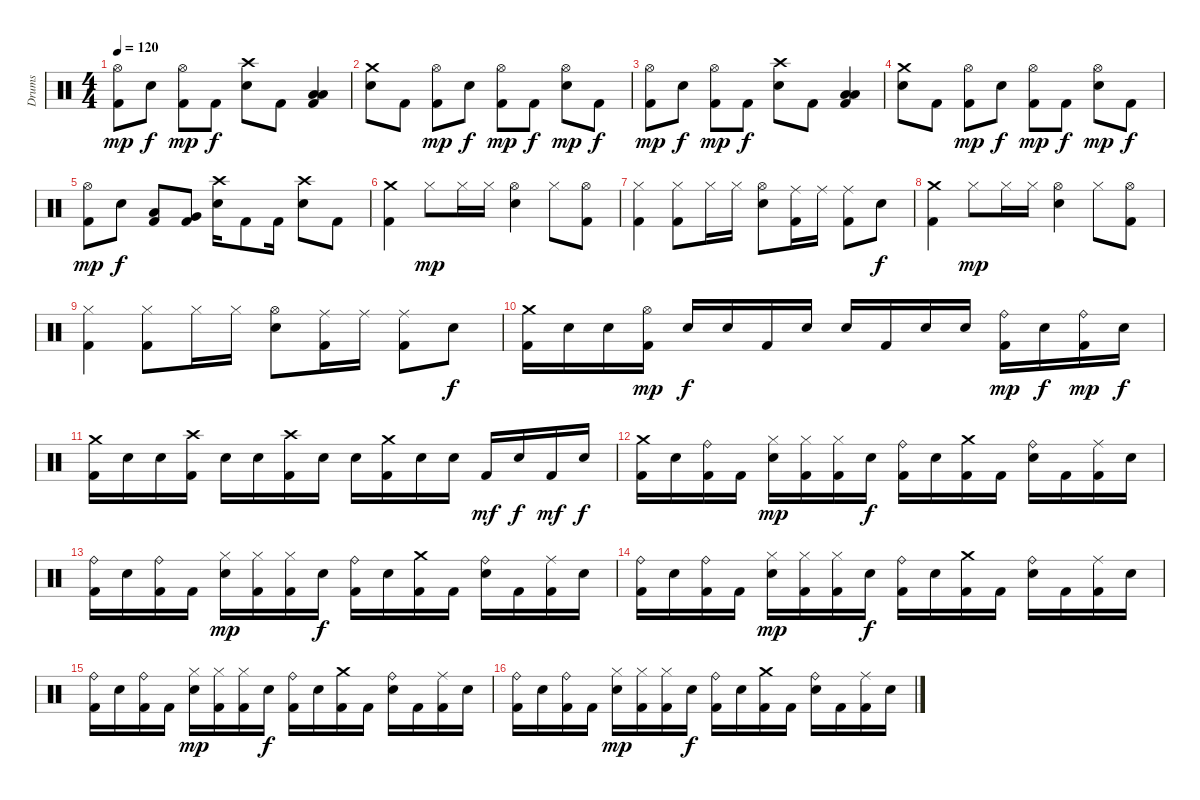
\track ("Drums" "Drums") {instrument percussion}
\staff {score}
\articulation defaults
\ts (4 4)
\tempo 120
\clef neutral
\ks c
("Hi-Hat (open)" "Kick (hit) 2").8{dy mp} "Snare (hit) 2".8{dy f} ("Hi-Hat (open)" "Kick (hit) 2").8{dy mp} "Kick (hit) 2".8{dy f} ("Crash high (hit)" "Snare (hit) 2").8 "Kick (hit) 2".8 ("Low Floor Tom (hit)" "Low Floor Tom (hit)" "Kick (hit) 2").4 |
("Crash medium (hit)" "Snare (hit) 2").8 "Kick (hit) 2".8 ("Hi-Hat (open)" "Kick (hit) 2").8{dy mp} "Snare (hit) 2".8{dy f} ("Hi-Hat (open)" "Kick (hit) 2").8{dy mp} "Kick (hit) 2".8{dy f} ("Hi-Hat (open)" "Snare (hit) 2").8{dy mp} "Kick (hit) 2".8{dy f} |
("Hi-Hat (open)" "Kick (hit) 2").8{dy mp} "Snare (hit) 2".8{dy f} ("Hi-Hat (open)" "Kick (hit) 2").8{dy mp} "Kick (hit) 2".8{dy f} ("Crash high (hit)" "Snare (hit) 2").8 "Kick (hit) 2".8 ("Low Floor Tom (hit)" "Low Floor Tom (hit)" "Kick (hit) 2").4 |
("Crash medium (hit)" "Snare (hit) 2").8 "Kick (hit) 2".8 ("Hi-Hat (open)" "Kick (hit) 2").8{dy mp} "Snare (hit) 2".8{dy f} ("Hi-Hat (open)" "Kick (hit) 2").8{dy mp} "Kick (hit) 2".8{dy f} ("Hi-Hat (open)" "Snare (hit) 2").8{dy mp} "Kick (hit) 2".8{dy f} |
("Hi-Hat (open)" "Kick (hit) 2").8{dy mp} "Snare (hit) 2".8{dy f} ("Low Tom (hit)" "Kick (hit) 2").8 ("Very Low Tom (hit)" "Kick (hit) 2").8 ("Crash high (hit)" "Snare (hit) 2").16 "Kick (hit) 2".8 "Kick (hit) 2".16 ("Crash high (hit)" "Snare (hit) 2").8 "Kick (hit) 2".8 |
("Crash medium (hit)" "Kick (hit) 2").4 "Hi-Hat (closed)".8{dy mp} "Hi-Hat (closed)".16 "Hi-Hat (closed)".16 ("Hi-Hat (open)" "Snare (hit) 2").4 "Hi-Hat (closed)".8 ("Hi-Hat (open)" "Kick (hit) 2").8 |
("Hi-Hat (closed)" "Kick (hit) 2").4 ("Hi-Hat (closed)" "Kick (hit) 2").8 "Hi-Hat (closed)".16 "Hi-Hat (closed)".16 ("Hi-Hat (open)" "Snare (hit) 2").8 ("Ride (middle)" "Kick (hit) 2").16 "Ride (middle)".16 ("Ride (middle)" "Kick (hit) 2").8 "Snare (hit) 2".8{dy f} |
("Crash medium (hit)" "Kick (hit) 2").4 "Hi-Hat (closed)".8{dy mp} "Hi-Hat (closed)".16 "Hi-Hat (closed)".16 ("Hi-Hat (open)" "Snare (hit) 2").4 "Hi-Hat (closed)".8 ("Hi-Hat (open)" "Kick (hit) 2").8 |
("Hi-Hat (closed)" "Kick (hit) 2").4 ("Hi-Hat (closed)" "Kick (hit) 2").8 "Hi-Hat (closed)".16 "Hi-Hat (closed)".16 ("Hi-Hat (open)" "Snare (hit) 2").8 ("Ride (middle)" "Kick (hit) 2").16 "Ride (middle)".16 ("Ride (middle)" "Kick (hit) 2").8 "Snare (hit) 2".8{dy f} |
("Crash medium (hit)" "Kick (hit) 2").16 "Snare (hit) 2".16 "Snare (hit) 2".16 ("Hi-Hat (open)" "Kick (hit) 2").16{dy mp} "Snare (hit) 2".16{dy f} "Snare (hit) 2".16 "Kick (hit) 2".16 "Snare (hit) 2".16 "Snare (hit) 2".16 "Kick (hit) 2".16 "Snare (hit) 2".16 "Snare (hit) 2".16 ("Ride (bell)" "Kick (hit) 2").16{dy mp} "Snare (hit) 2".16{dy f} ("Ride (bell)" "Kick (hit) 2").16{dy mp} "Snare (hit) 2".16{dy f} |
("Crash medium (hit)" "Kick (hit) 2").16 "Snare (hit) 2".16 "Snare (hit) 2".16 ("Crash high (hit)" "Kick (hit) 2").16 "Snare (hit) 2".16 "Snare (hit) 2".16 ("Crash high (hit)" "Kick (hit) 2").16 "Snare (hit) 2".16 "Snare (hit) 2".16 ("Crash medium (hit)" "Kick (hit) 2").16 "Snare (hit) 2".16 "Snare (hit) 2".16 "Kick (hit) 2".16{dy mf} "Snare (hit) 2".16{dy f} "Kick (hit) 2".16{dy mf} "Snare (hit) 2".16{dy f} |
("Crash medium (hit)" "Kick (hit) 2").16 "Snare (hit) 2".16 ("Ride (bell)" "Kick (hit) 2").16 "Kick (hit) 2".16 ("Hi-Hat (closed)" "Snare (hit) 2").16{dy mp} ("Hi-Hat (closed)" "Kick (hit) 2").16 ("Hi-Hat (closed)" "Kick (hit) 2").16 "Snare (hit) 2".16{dy f} ("Ride (bell)" "Kick (hit) 2").16 "Snare (hit) 2".16 ("Crash medium (hit)" "Kick (hit) 2").16 "Kick (hit) 2".16 ("Ride (bell)" "Snare (hit) 2").16 "Kick (hit) 2".16 ("Ride (middle)" "Kick (hit) 2").16 "Snare (hit) 2".16 |
("Ride (bell)" "Kick (hit) 2").16 "Snare (hit) 2".16 ("Ride (bell)" "Kick (hit) 2").16 "Kick (hit) 2".16 ("Hi-Hat (closed)" "Snare (hit) 2").16{dy mp} ("Hi-Hat (closed)" "Kick (hit) 2").16 ("Hi-Hat (closed)" "Kick (hit) 2").16 "Snare (hit) 2".16{dy f} ("Ride (bell)" "Kick (hit) 2").16 "Snare (hit) 2".16 ("Crash medium (hit)" "Kick (hit) 2").16 "Kick (hit) 2".16 ("Ride (bell)" "Snare (hit) 2").16 "Kick (hit) 2".16 ("Ride (middle)" "Kick (hit) 2").16 "Snare (hit) 2".16 |
("Ride (bell)" "Kick (hit) 2").16 "Snare (hit) 2".16 ("Ride (bell)" "Kick (hit) 2").16 "Kick (hit) 2".16 ("Hi-Hat (closed)" "Snare (hit) 2").16{dy mp} ("Hi-Hat (closed)" "Kick (hit) 2").16 ("Hi-Hat (closed)" "Kick (hit) 2").16 "Snare (hit) 2".16{dy f} ("Ride (bell)" "Kick (hit) 2").16 "Snare (hit) 2".16 ("Crash medium (hit)" "Kick (hit) 2").16 "Kick (hit) 2".16 ("Ride (bell)" "Snare (hit) 2").16 "Kick (hit) 2".16 ("Ride (middle)" "Kick (hit) 2").16 "Snare (hit) 2".16 |
("Ride (bell)" "Kick (hit) 2").16 "Snare (hit) 2".16 ("Ride (bell)" "Kick (hit) 2").16 "Kick (hit) 2".16 ("Hi-Hat (closed)" "Snare (hit) 2").16{dy mp} ("Hi-Hat (closed)" "Kick (hit) 2").16 ("Hi-Hat (closed)" "Kick (hit) 2").16 "Snare (hit) 2".16{dy f} ("Ride (bell)" "Kick (hit) 2").16 "Snare (hit) 2".16 ("Crash medium (hit)" "Kick (hit) 2").16 "Kick (hit) 2".16 ("Ride (bell)" "Snare (hit) 2").16 "Kick (hit) 2".16 ("Ride (middle)" "Kick (hit) 2").16 "Snare (hit) 2".16 |
("Ride (bell)" "Kick (hit) 2").16 "Snare (hit) 2".16 ("Ride (bell)" "Kick (hit) 2").16 "Kick (hit) 2".16 ("Hi-Hat (closed)" "Snare (hit) 2").16{dy mp} ("Hi-Hat (closed)" "Kick (hit) 2").16 ("Hi-Hat (closed)" "Kick (hit) 2").16 "Snare (hit) 2".16{dy f} ("Ride (bell)" "Kick (hit) 2").16 "Snare (hit) 2".16 ("Crash medium (hit)" "Kick (hit) 2").16 "Kick (hit) 2".16 ("Ride (bell)" "Snare (hit) 2").16 "Kick (hit) 2".16 ("Ride (middle)" "Kick (hit) 2").16 "Snare (hit) 2".16
